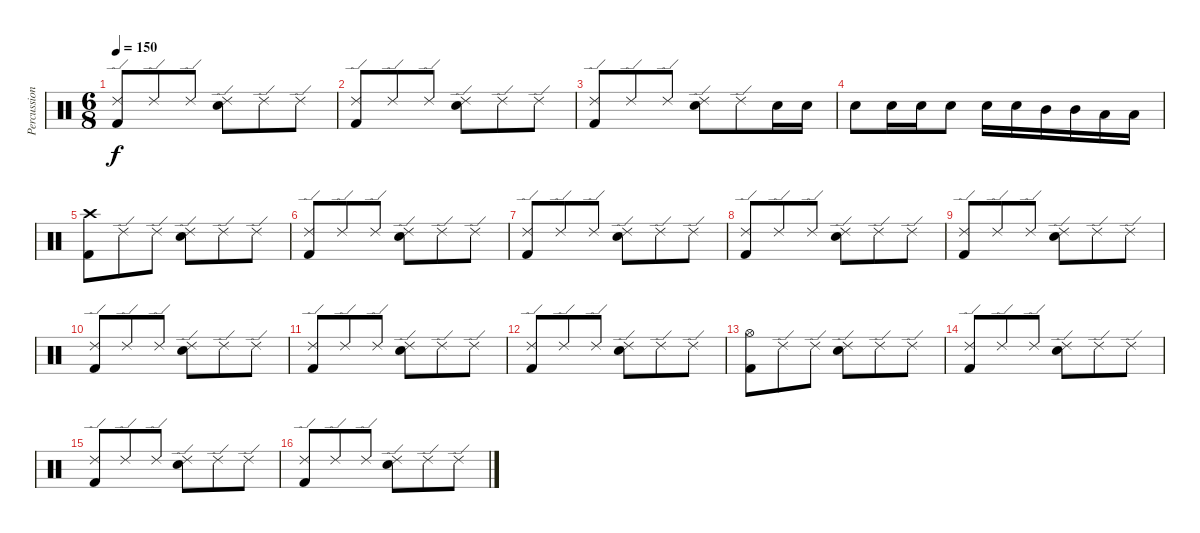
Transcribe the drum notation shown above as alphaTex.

\track ("Percussion" "Percussion") {instrument percussion}
\staff {score}
\articulation defaults
\ts (6 8)
\tempo 150
\clef neutral
\ks c
("Ride (edge) 2" "Kick (hit) 2").8{dy f} "Ride (edge) 2".8 "Ride (edge) 2".8 ("Ride (edge) 2" "Electric Snare (hit)").8 "Ride (edge) 2".8 "Ride (edge) 2".8 |
("Ride (edge) 2" "Kick (hit) 2").8 "Ride (edge) 2".8 "Ride (edge) 2".8 ("Ride (edge) 2" "Electric Snare (hit)").8 "Ride (edge) 2".8 "Ride (edge) 2".8 |
("Ride (edge) 2" "Kick (hit) 2").8 "Ride (edge) 2".8 "Ride (edge) 2".8 ("Ride (edge) 2" "Electric Snare (hit)").8 "Ride (edge) 2".8 "Electric Snare (hit)".16 "Electric Snare (hit)".16 |
"Electric Snare (hit)".8 "Electric Snare (hit)".16 "Electric Snare (hit)".16 "Electric Snare (hit)".8 "Electric Snare (hit)".16 "Electric Snare (hit)".16 "Mid Tom (hit)".16 "Mid Tom (hit)".16 "Low Tom (hit)".16 "Low Tom (hit)".16 |
("Crash high (hit)" "Kick (hit) 2").8 "Ride (edge) 2".8 "Ride (edge) 2".8 ("Ride (edge) 2" "Electric Snare (hit)").8 "Ride (edge) 2".8 "Ride (edge) 2".8 |
("Ride (edge) 2" "Kick (hit) 2").8 "Ride (edge) 2".8 "Ride (edge) 2".8 ("Ride (edge) 2" "Electric Snare (hit)").8 "Ride (edge) 2".8 "Ride (edge) 2".8 |
("Ride (edge) 2" "Kick (hit) 2").8 "Ride (edge) 2".8 "Ride (edge) 2".8 ("Ride (edge) 2" "Electric Snare (hit)").8 "Ride (edge) 2".8 "Ride (edge) 2".8 |
("Ride (edge) 2" "Kick (hit) 2").8 "Ride (edge) 2".8 "Ride (edge) 2".8 ("Ride (edge) 2" "Electric Snare (hit)").8 "Ride (edge) 2".8 "Ride (edge) 2".8 |
("Ride (edge) 2" "Kick (hit) 2").8 "Ride (edge) 2".8 "Ride (edge) 2".8 ("Ride (edge) 2" "Electric Snare (hit)").8 "Ride (edge) 2".8 "Ride (edge) 2".8 |
("Ride (edge) 2" "Kick (hit) 2").8 "Ride (edge) 2".8 "Ride (edge) 2".8 ("Ride (edge) 2" "Electric Snare (hit)").8 "Ride (edge) 2".8 "Ride (edge) 2".8 |
("Ride (edge) 2" "Kick (hit) 2").8 "Ride (edge) 2".8 "Ride (edge) 2".8 ("Ride (edge) 2" "Electric Snare (hit)").8 "Ride (edge) 2".8 "Ride (edge) 2".8 |
("Ride (edge) 2" "Kick (hit) 2").8 "Ride (edge) 2".8 "Ride (edge) 2".8 ("Ride (edge) 2" "Electric Snare (hit)").8 "Ride (edge) 2".8 "Ride (edge) 2".8 |
("Hi-Hat (open)" "Kick (hit) 2").8 "Ride (edge) 2".8 "Ride (edge) 2".8 ("Ride (edge) 2" "Electric Snare (hit)").8 "Ride (edge) 2".8 "Ride (edge) 2".8 |
("Ride (edge) 2" "Kick (hit) 2").8 "Ride (edge) 2".8 "Ride (edge) 2".8 ("Ride (edge) 2" "Electric Snare (hit)").8 "Ride (edge) 2".8 "Ride (edge) 2".8 |
("Ride (edge) 2" "Kick (hit) 2").8 "Ride (edge) 2".8 "Ride (edge) 2".8 ("Ride (edge) 2" "Electric Snare (hit)").8 "Ride (edge) 2".8 "Ride (edge) 2".8 |
("Ride (edge) 2" "Kick (hit) 2").8 "Ride (edge) 2".8 "Ride (edge) 2".8 ("Ride (edge) 2" "Electric Snare (hit)").8 "Ride (edge) 2".8 "Ride (edge) 2".8
